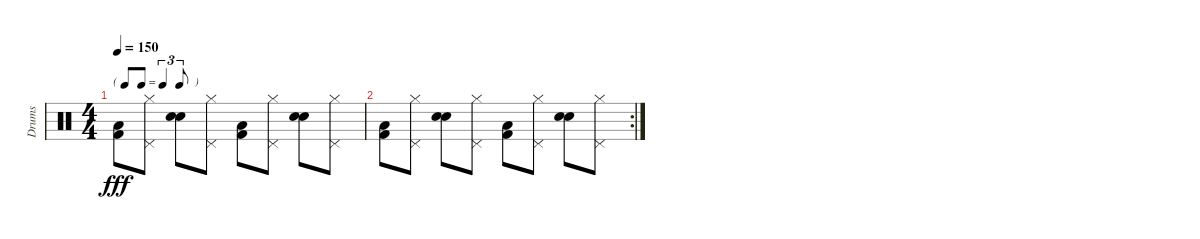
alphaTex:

\track ("Drums" "Drums") {instrument percussion}
\staff {score}
\articulation defaults
\ts (4 4)
\tf triplet8th
\tempo 150
\clef neutral
\ks c
("Kick (hit) 2" "Low Floor Tom (hit)").8{dy fff} ("Hi-Hat (closed)" "Pedal Hi-Hat (hit)").8 ("Snare (hit) 2" "Electric Snare (hit)").8 ("Hi-Hat (closed)" "Pedal Hi-Hat (hit)").8 ("Kick (hit) 2" "Low Floor Tom (hit)").8 ("Hi-Hat (closed)" "Pedal Hi-Hat (hit)").8 ("Snare (hit) 2" "Electric Snare (hit)").8 ("Hi-Hat (closed)" "Pedal Hi-Hat (hit)").8 |
\rc 2
("Kick (hit) 2" "Low Floor Tom (hit)").8 ("Hi-Hat (closed)" "Pedal Hi-Hat (hit)").8 ("Snare (hit) 2" "Electric Snare (hit)").8 ("Hi-Hat (closed)" "Pedal Hi-Hat (hit)").8 ("Kick (hit) 2" "Low Floor Tom (hit)").8 ("Hi-Hat (closed)" "Pedal Hi-Hat (hit)").8 ("Snare (hit) 2" "Electric Snare (hit)").8 ("Hi-Hat (closed)" "Pedal Hi-Hat (hit)").8
